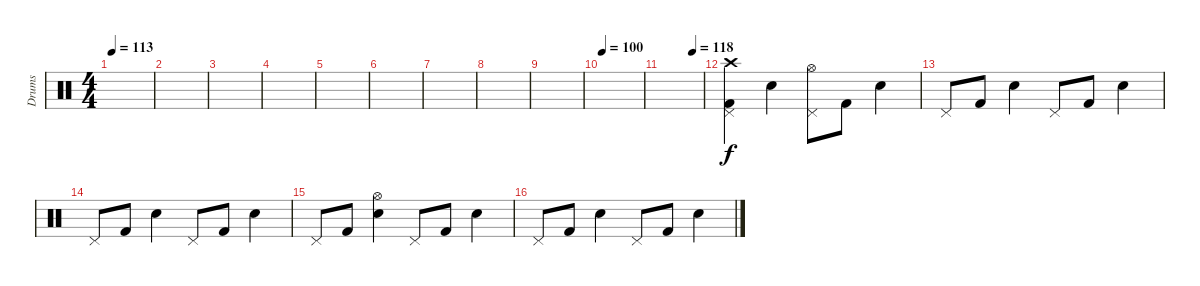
\track ("Drums" "Drums") {instrument percussion}
\staff
\articulation defaults
\ts (4 4)
\tempo 113
\clef neutral
\ks c
|
|
|
|
|
|
|
|
|
\tempo 100
|
\tempo (118 0.75)
|
("Crash high (hit)" "Pedal Hi-Hat (hit)" "Kick (hit) 2").4 "Electric Snare (hit)".4 ("Hi-Hat (open)" "Pedal Hi-Hat (hit)").8 "Kick (hit) 2".8 "Electric Snare (hit)".4 |
"Pedal Hi-Hat (hit)".8 "Kick (hit) 2".8 "Electric Snare (hit)".4 "Pedal Hi-Hat (hit)".8 "Kick (hit) 2".8 "Electric Snare (hit)".4 |
"Pedal Hi-Hat (hit)".8 "Kick (hit) 2".8 "Electric Snare (hit)".4 "Pedal Hi-Hat (hit)".8 "Kick (hit) 2".8 "Electric Snare (hit)".4 |
"Pedal Hi-Hat (hit)".8 "Kick (hit) 2".8 ("Hi-Hat (open)" "Electric Snare (hit)").4 "Pedal Hi-Hat (hit)".8 "Kick (hit) 2".8 "Electric Snare (hit)".4 |
"Pedal Hi-Hat (hit)".8 "Kick (hit) 2".8 "Electric Snare (hit)".4 "Pedal Hi-Hat (hit)".8 "Kick (hit) 2".8 "Electric Snare (hit)".4
